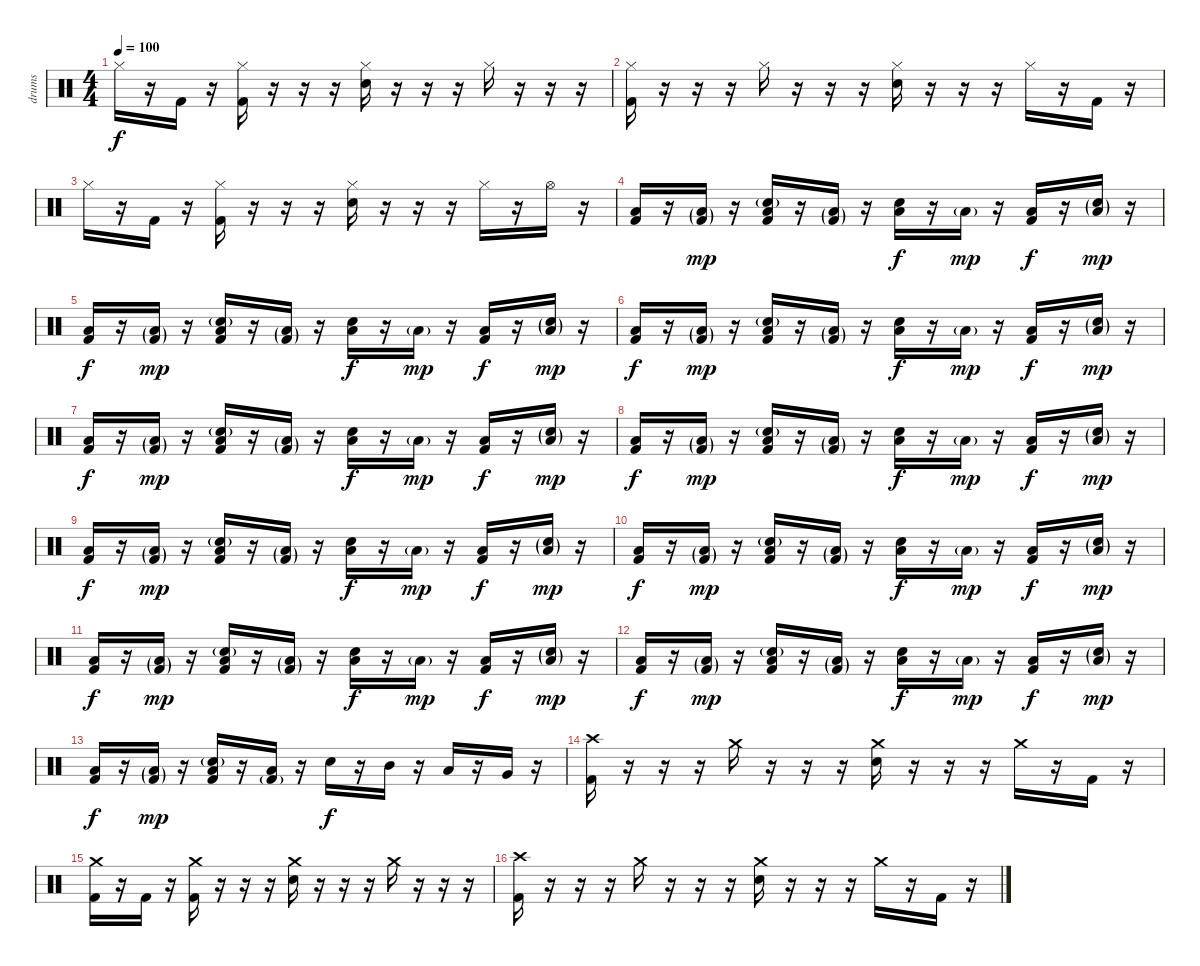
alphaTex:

\track ("drums" "drums") {instrument percussion}
\staff {score}
\articulation defaults
\ts (4 4)
\tempo 100
\clef neutral
\ks c "Hi-Hat (closed)".16{dy f}
r.16 "Kick (hit) 2".16 r.16 ("Hi-Hat (closed)" "Kick (hit) 2").16 r.16 r.16 r.16 ("Hi-Hat (closed)" "Snare (hit) 2").16 r.16 r.16 r.16 "Hi-Hat (closed)".16 r.16 r.16 r.16 |
("Hi-Hat (closed)" "Kick (hit) 2").16 r.16 r.16 r.16 "Hi-Hat (closed)".16 r.16 r.16 r.16 ("Hi-Hat (closed)" "Snare (hit) 2").16 r.16 r.16 r.16 "Hi-Hat (closed)".16 r.16 "Kick (hit) 2".16 r.16 |
"Hi-Hat (closed)".16 r.16 "Kick (hit) 2".16 r.16 ("Hi-Hat (closed)" "Kick (hit) 2").16 r.16 r.16 r.16 ("Hi-Hat (closed)" "Snare (hit) 2").16 r.16 r.16 r.16 "Hi-Hat (closed)".16 r.16 "Hi-Hat (open)".16 r.16 |
("Low Floor Tom (hit)" "Kick (hit) 2").16 r.16 ("Low Floor Tom (hit)"{g} "Kick (hit) 2"{g}).16{dy mp} r.16 ("Low Floor Tom (hit)" "Snare (hit) 2"{g} "Kick (hit) 2").16 r.16 ("Low Floor Tom (hit)"{g} "Kick (hit) 2"{g}).16 r.16 ("Low Floor Tom (hit)" "Snare (hit) 2").16{dy f} r.16 "Low Floor Tom (hit)"{g}.16{dy mp} r.16 ("Low Floor Tom (hit)" "Kick (hit) 2").16{dy f} r.16 ("Low Floor Tom (hit)"{g} "Snare (hit) 2"{g}).16{dy mp} r.16 |
("Low Floor Tom (hit)" "Kick (hit) 2").16{dy f} r.16 ("Low Floor Tom (hit)"{g} "Kick (hit) 2"{g}).16{dy mp} r.16 ("Low Floor Tom (hit)" "Snare (hit) 2"{g} "Kick (hit) 2").16 r.16 ("Low Floor Tom (hit)"{g} "Kick (hit) 2"{g}).16 r.16 ("Low Floor Tom (hit)" "Snare (hit) 2").16{dy f} r.16 "Low Floor Tom (hit)"{g}.16{dy mp} r.16 ("Low Floor Tom (hit)" "Kick (hit) 2").16{dy f} r.16 ("Low Floor Tom (hit)"{g} "Snare (hit) 2"{g}).16{dy mp} r.16 |
("Low Floor Tom (hit)" "Kick (hit) 2").16{dy f} r.16 ("Low Floor Tom (hit)"{g} "Kick (hit) 2"{g}).16{dy mp} r.16 ("Low Floor Tom (hit)" "Snare (hit) 2"{g} "Kick (hit) 2").16 r.16 ("Low Floor Tom (hit)"{g} "Kick (hit) 2"{g}).16 r.16 ("Low Floor Tom (hit)" "Snare (hit) 2").16{dy f} r.16 "Low Floor Tom (hit)"{g}.16{dy mp} r.16 ("Low Floor Tom (hit)" "Kick (hit) 2").16{dy f} r.16 ("Low Floor Tom (hit)"{g} "Snare (hit) 2"{g}).16{dy mp} r.16 |
("Low Floor Tom (hit)" "Kick (hit) 2").16{dy f} r.16 ("Low Floor Tom (hit)"{g} "Kick (hit) 2"{g}).16{dy mp} r.16 ("Low Floor Tom (hit)" "Snare (hit) 2"{g} "Kick (hit) 2").16 r.16 ("Low Floor Tom (hit)"{g} "Kick (hit) 2"{g}).16 r.16 ("Low Floor Tom (hit)" "Snare (hit) 2").16{dy f} r.16 "Low Floor Tom (hit)"{g}.16{dy mp} r.16 ("Low Floor Tom (hit)" "Kick (hit) 2").16{dy f} r.16 ("Low Floor Tom (hit)"{g} "Snare (hit) 2"{g}).16{dy mp} r.16 |
("Low Floor Tom (hit)" "Kick (hit) 2").16{dy f} r.16 ("Low Floor Tom (hit)"{g} "Kick (hit) 2"{g}).16{dy mp} r.16 ("Low Floor Tom (hit)" "Snare (hit) 2"{g} "Kick (hit) 2").16 r.16 ("Low Floor Tom (hit)"{g} "Kick (hit) 2"{g}).16 r.16 ("Low Floor Tom (hit)" "Snare (hit) 2").16{dy f} r.16 "Low Floor Tom (hit)"{g}.16{dy mp} r.16 ("Low Floor Tom (hit)" "Kick (hit) 2").16{dy f} r.16 ("Low Floor Tom (hit)"{g} "Snare (hit) 2"{g}).16{dy mp} r.16 |
("Low Floor Tom (hit)" "Kick (hit) 2").16{dy f} r.16 ("Low Floor Tom (hit)"{g} "Kick (hit) 2"{g}).16{dy mp} r.16 ("Low Floor Tom (hit)" "Snare (hit) 2"{g} "Kick (hit) 2").16 r.16 ("Low Floor Tom (hit)"{g} "Kick (hit) 2"{g}).16 r.16 ("Low Floor Tom (hit)" "Snare (hit) 2").16{dy f} r.16 "Low Floor Tom (hit)"{g}.16{dy mp} r.16 ("Low Floor Tom (hit)" "Kick (hit) 2").16{dy f} r.16 ("Low Floor Tom (hit)"{g} "Snare (hit) 2"{g}).16{dy mp} r.16 |
("Low Floor Tom (hit)" "Kick (hit) 2").16{dy f} r.16 ("Low Floor Tom (hit)"{g} "Kick (hit) 2"{g}).16{dy mp} r.16 ("Low Floor Tom (hit)" "Snare (hit) 2"{g} "Kick (hit) 2").16 r.16 ("Low Floor Tom (hit)"{g} "Kick (hit) 2"{g}).16 r.16 ("Low Floor Tom (hit)" "Snare (hit) 2").16{dy f} r.16 "Low Floor Tom (hit)"{g}.16{dy mp} r.16 ("Low Floor Tom (hit)" "Kick (hit) 2").16{dy f} r.16 ("Low Floor Tom (hit)"{g} "Snare (hit) 2"{g}).16{dy mp} r.16 |
("Low Floor Tom (hit)" "Kick (hit) 2").16{dy f} r.16 ("Low Floor Tom (hit)"{g} "Kick (hit) 2"{g}).16{dy mp} r.16 ("Low Floor Tom (hit)" "Snare (hit) 2"{g} "Kick (hit) 2").16 r.16 ("Low Floor Tom (hit)"{g} "Kick (hit) 2"{g}).16 r.16 ("Low Floor Tom (hit)" "Snare (hit) 2").16{dy f} r.16 "Low Floor Tom (hit)"{g}.16{dy mp} r.16 ("Low Floor Tom (hit)" "Kick (hit) 2").16{dy f} r.16 ("Low Floor Tom (hit)"{g} "Snare (hit) 2"{g}).16{dy mp} r.16 |
("Low Floor Tom (hit)" "Kick (hit) 2").16{dy f} r.16 ("Low Floor Tom (hit)"{g} "Kick (hit) 2"{g}).16{dy mp} r.16 ("Low Floor Tom (hit)" "Snare (hit) 2"{g} "Kick (hit) 2").16 r.16 ("Low Floor Tom (hit)"{g} "Kick (hit) 2"{g}).16 r.16 ("Low Floor Tom (hit)" "Snare (hit) 2").16{dy f} r.16 "Low Floor Tom (hit)"{g}.16{dy mp} r.16 ("Low Floor Tom (hit)" "Kick (hit) 2").16{dy f} r.16 ("Low Floor Tom (hit)"{g} "Snare (hit) 2"{g}).16{dy mp} r.16 |
("Low Floor Tom (hit)" "Kick (hit) 2").16{dy f} r.16 ("Low Floor Tom (hit)"{g} "Kick (hit) 2"{g}).16{dy mp} r.16 ("Low Floor Tom (hit)" "Snare (hit) 2"{g} "Kick (hit) 2").16 r.16 ("Low Floor Tom (hit)" "Kick (hit) 2"{g}).16 r.16 "Snare (hit) 2".16{dy f} r.16 "Mid Tom (hit)".16 r.16 "Low Tom (hit)".16 r.16 "Very Low Tom (hit)".16 r.16 |
("Crash high (hit)" "Kick (hit) 2").16 r.16 r.16 r.16 "Crash medium (hit)".16 r.16 r.16 r.16 ("Crash medium (hit)" "Snare (hit) 2").16 r.16 r.16 r.16 "Crash medium (hit)".16 r.16 "Kick (hit) 2".16 r.16 |
("Crash medium (hit)" "Kick (hit) 2").16 r.16 "Kick (hit) 2".16 r.16 ("Crash medium (hit)" "Kick (hit) 2").16 r.16 r.16 r.16 ("Crash medium (hit)" "Snare (hit) 2").16 r.16 r.16 r.16 "Crash medium (hit)".16 r.16 r.16 r.16 |
("Crash high (hit)" "Kick (hit) 2").16 r.16 r.16 r.16 "Crash medium (hit)".16 r.16 r.16 r.16 ("Crash medium (hit)" "Snare (hit) 2").16 r.16 r.16 r.16 "Crash medium (hit)".16 r.16 "Kick (hit) 2".16 r.16
